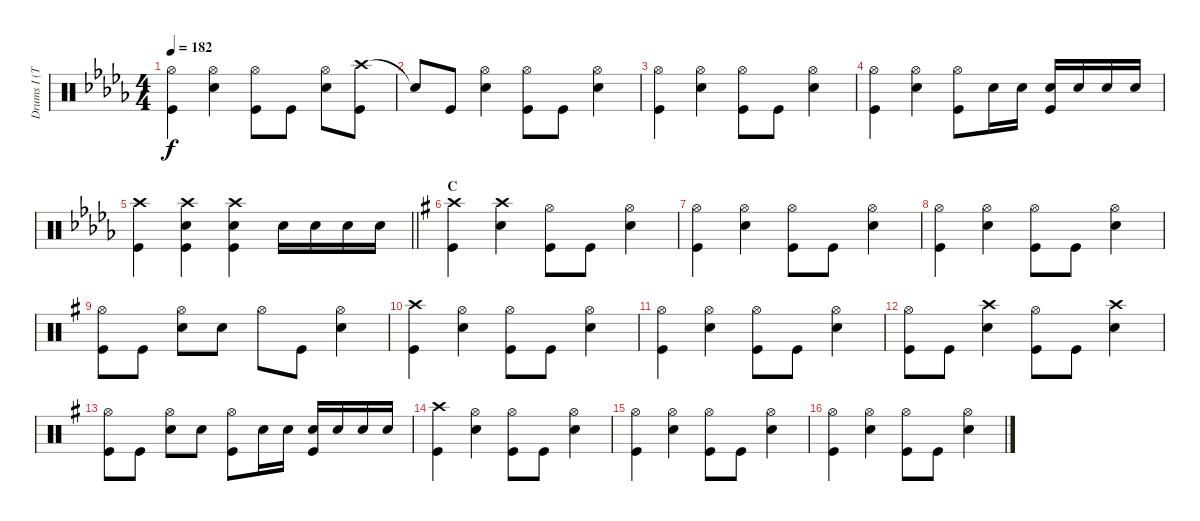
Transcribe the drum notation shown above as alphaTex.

\track ("Drums I (Tainaka Ritsu)" "Drums I (T") {instrument percussion}
\staff {score}
\articulation defaults
\ts (4 4)
\tempo 182
\clef neutral
\ks db
("Hi-Hat (open)" "Kick (hit)").4{dy f} ("Hi-Hat (open)" "Snare (hit) 2").4 ("Hi-Hat (open)" "Kick (hit)").8 "Kick (hit)".8 ("Hi-Hat (open)" "Snare (hit) 2").8 ("Crash high (hit)" "Kick (hit)").8 |
"Snare (hit)"{t}.8 "Kick (hit)".8 ("Hi-Hat (open)" "Snare (hit) 2").4 ("Hi-Hat (open)" "Kick (hit)").8 "Kick (hit)".8 ("Hi-Hat (open)" "Snare (hit) 2").4 |
("Hi-Hat (open)" "Kick (hit)").4 ("Hi-Hat (open)" "Snare (hit) 2").4 ("Hi-Hat (open)" "Kick (hit)").8 "Kick (hit)".8 ("Hi-Hat (open)" "Snare (hit) 2").4 |
("Hi-Hat (open)" "Kick (hit)").4 ("Hi-Hat (open)" "Snare (hit) 2").4 ("Hi-Hat (open)" "Kick (hit)").8 "Snare (hit) 2".16 "Snare (hit) 2".16 ("Snare (hit) 2" "Kick (hit)").16 "Snare (hit) 2".16 "Snare (hit) 2".16 "Snare (hit) 2".16 |
\barLineRight lightlight
("Crash high (hit)" "Kick (hit)").4 ("Crash high (hit)" "Snare (hit) 2" "Kick (hit)").4 ("Crash high (hit)" "Snare (hit) 2" "Kick (hit)").4 "Snare (hit) 2".16 "Snare (hit) 2".16 "Snare (hit) 2".16 "Snare (hit) 2".16 |
\section ("" "C")
\ks g
("Crash high (hit)" "Kick (hit)").4 ("Crash high (hit)" "Snare (hit) 2").4 ("Hi-Hat (open)" "Kick (hit)").8 "Kick (hit)".8 ("Hi-Hat (open)" "Snare (hit) 2").4 |
("Hi-Hat (open)" "Kick (hit)").4 ("Hi-Hat (open)" "Snare (hit) 2").4 ("Hi-Hat (open)" "Kick (hit)").8 "Kick (hit)".8 ("Hi-Hat (open)" "Snare (hit) 2").4 |
("Hi-Hat (open)" "Kick (hit)").4 ("Hi-Hat (open)" "Snare (hit) 2").4 ("Hi-Hat (open)" "Kick (hit)").8 "Kick (hit)".8 ("Hi-Hat (open)" "Snare (hit) 2").4 |
("Hi-Hat (open)" "Kick (hit)").8 "Kick (hit)".8 ("Hi-Hat (open)" "Snare (hit) 2").8 "Snare (hit) 2".8 "Hi-Hat (open)".8 "Kick (hit)".8 ("Hi-Hat (open)" "Snare (hit) 2").4 |
("Crash high (hit)" "Kick (hit)").4 ("Hi-Hat (open)" "Snare (hit) 2").4 ("Hi-Hat (open)" "Kick (hit)").8 "Kick (hit)".8 ("Hi-Hat (open)" "Snare (hit) 2").4 |
("Hi-Hat (open)" "Kick (hit)").4 ("Hi-Hat (open)" "Snare (hit) 2").4 ("Hi-Hat (open)" "Kick (hit)").8 "Kick (hit)".8 ("Hi-Hat (open)" "Snare (hit) 2").4 |
("Hi-Hat (open)" "Kick (hit)").8 "Kick (hit)".8 ("Crash high (hit)" "Snare (hit) 2").4 ("Hi-Hat (open)" "Kick (hit)").8 "Kick (hit)".8 ("Crash high (hit)" "Snare (hit) 2").4 |
("Hi-Hat (open)" "Kick (hit)").8 "Kick (hit)".8 ("Hi-Hat (open)" "Snare (hit) 2").8 "Snare (hit) 2".8 ("Hi-Hat (open)" "Kick (hit)").8 "Snare (hit) 2".16 "Snare (hit) 2".16 ("Snare (hit) 2" "Kick (hit)").16 "Snare (hit) 2".16 "Snare (hit) 2".16 "Snare (hit) 2".16 |
("Crash high (hit)" "Kick (hit)").4 ("Hi-Hat (open)" "Snare (hit) 2").4 ("Hi-Hat (open)" "Kick (hit)").8 "Kick (hit)".8 ("Hi-Hat (open)" "Snare (hit) 2").4 |
("Hi-Hat (open)" "Kick (hit)").4 ("Hi-Hat (open)" "Snare (hit) 2").4 ("Hi-Hat (open)" "Kick (hit)").8 "Kick (hit)".8 ("Hi-Hat (open)" "Snare (hit) 2").4 |
("Hi-Hat (open)" "Kick (hit)").4 ("Hi-Hat (open)" "Snare (hit) 2").4 ("Hi-Hat (open)" "Kick (hit)").8 "Kick (hit)".8 ("Hi-Hat (open)" "Snare (hit) 2").4
